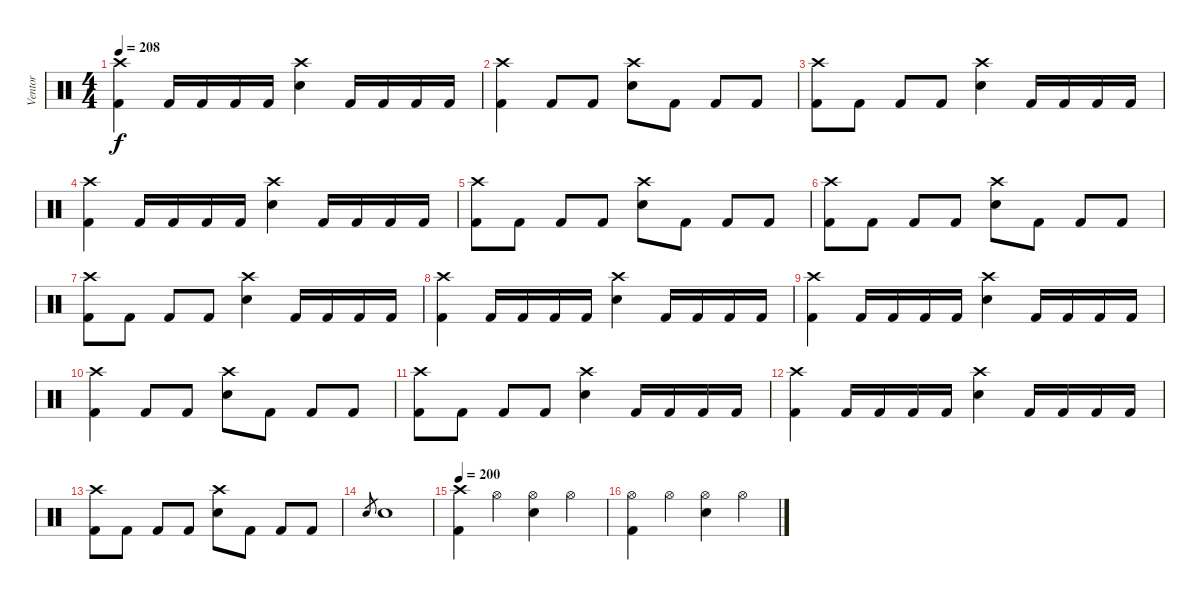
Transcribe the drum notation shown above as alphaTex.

\track ("Ventor" "Ventor") {instrument percussion}
\staff {score}
\articulation defaults
\ts (4 4)
\tempo 208
\clef neutral
\ks c
("Crash high (hit)" "Kick (hit) 2").4{dy f} "Kick (hit) 2".16 "Kick (hit) 2".16 "Kick (hit) 2".16 "Kick (hit) 2".16 ("Crash high (hit)" "Electric Snare (hit)").4 "Kick (hit) 2".16 "Kick (hit) 2".16 "Kick (hit) 2".16 "Kick (hit) 2".16 |
("Crash high (hit)" "Kick (hit) 2").4 "Kick (hit) 2".8 "Kick (hit) 2".8 ("Crash high (hit)" "Electric Snare (hit)").8 "Kick (hit) 2".8 "Kick (hit) 2".8 "Kick (hit) 2".8 |
("Crash high (hit)" "Kick (hit) 2").8 "Kick (hit) 2".8 "Kick (hit) 2".8 "Kick (hit) 2".8 ("Crash high (hit)" "Electric Snare (hit)").4 "Kick (hit) 2".16 "Kick (hit) 2".16 "Kick (hit) 2".16 "Kick (hit) 2".16 |
("Crash high (hit)" "Kick (hit) 2").4 "Kick (hit) 2".16 "Kick (hit) 2".16 "Kick (hit) 2".16 "Kick (hit) 2".16 ("Crash high (hit)" "Electric Snare (hit)").4 "Kick (hit) 2".16 "Kick (hit) 2".16 "Kick (hit) 2".16 "Kick (hit) 2".16 |
("Crash high (hit)" "Kick (hit) 2").8 "Kick (hit) 2".8 "Kick (hit) 2".8 "Kick (hit) 2".8 ("Crash high (hit)" "Electric Snare (hit)").8 "Kick (hit) 2".8 "Kick (hit) 2".8 "Kick (hit) 2".8 |
("Crash high (hit)" "Kick (hit) 2").8 "Kick (hit) 2".8 "Kick (hit) 2".8 "Kick (hit) 2".8 ("Crash high (hit)" "Electric Snare (hit)").8 "Kick (hit) 2".8 "Kick (hit) 2".8 "Kick (hit) 2".8 |
("Crash high (hit)" "Kick (hit) 2").8 "Kick (hit) 2".8 "Kick (hit) 2".8 "Kick (hit) 2".8 ("Crash high (hit)" "Electric Snare (hit)").4 "Kick (hit) 2".16 "Kick (hit) 2".16 "Kick (hit) 2".16 "Kick (hit) 2".16 |
("Crash high (hit)" "Kick (hit) 2").4 "Kick (hit) 2".16 "Kick (hit) 2".16 "Kick (hit) 2".16 "Kick (hit) 2".16 ("Crash high (hit)" "Electric Snare (hit)").4 "Kick (hit) 2".16 "Kick (hit) 2".16 "Kick (hit) 2".16 "Kick (hit) 2".16 |
("Crash high (hit)" "Kick (hit) 2").4 "Kick (hit) 2".16 "Kick (hit) 2".16 "Kick (hit) 2".16 "Kick (hit) 2".16 ("Crash high (hit)" "Electric Snare (hit)").4 "Kick (hit) 2".16 "Kick (hit) 2".16 "Kick (hit) 2".16 "Kick (hit) 2".16 |
("Crash high (hit)" "Kick (hit) 2").4 "Kick (hit) 2".8 "Kick (hit) 2".8 ("Crash high (hit)" "Electric Snare (hit)").8 "Kick (hit) 2".8 "Kick (hit) 2".8 "Kick (hit) 2".8 |
("Crash high (hit)" "Kick (hit) 2").8 "Kick (hit) 2".8 "Kick (hit) 2".8 "Kick (hit) 2".8 ("Crash high (hit)" "Electric Snare (hit)").4 "Kick (hit) 2".16 "Kick (hit) 2".16 "Kick (hit) 2".16 "Kick (hit) 2".16 |
("Crash high (hit)" "Kick (hit) 2").4 "Kick (hit) 2".16 "Kick (hit) 2".16 "Kick (hit) 2".16 "Kick (hit) 2".16 ("Crash high (hit)" "Electric Snare (hit)").4 "Kick (hit) 2".16 "Kick (hit) 2".16 "Kick (hit) 2".16 "Kick (hit) 2".16 |
("Crash high (hit)" "Kick (hit) 2").8 "Kick (hit) 2".8 "Kick (hit) 2".8 "Kick (hit) 2".8 ("Crash high (hit)" "Electric Snare (hit)").8 "Kick (hit) 2".8 "Kick (hit) 2".8 "Kick (hit) 2".8 |
"Electric Snare (hit)".8{gr} "Electric Snare (hit)".1 |
\tempo 200
("Crash high (hit)" "Kick (hit) 2").4 "Hi-Hat (open)".4 ("Hi-Hat (open)" "Electric Snare (hit)").4 "Hi-Hat (open)".4 |
("Hi-Hat (open)" "Kick (hit) 2").4 "Hi-Hat (open)".4 ("Hi-Hat (open)" "Electric Snare (hit)").4 "Hi-Hat (open)".4
